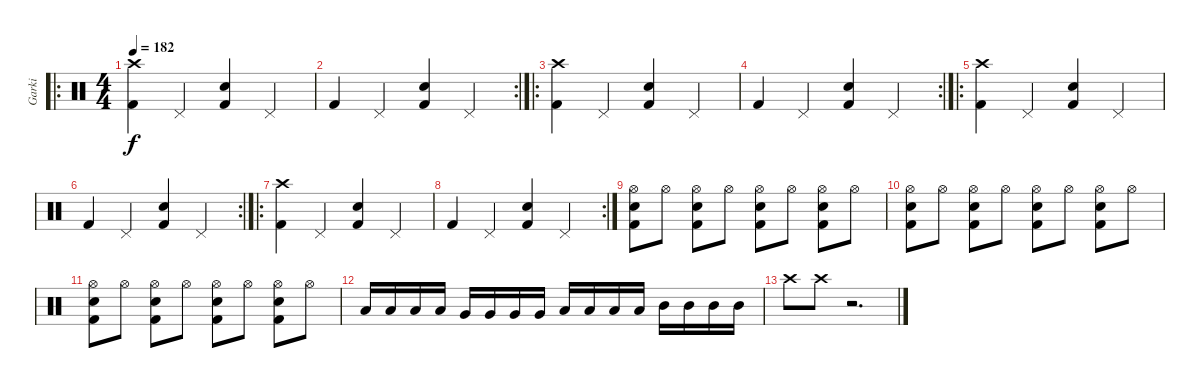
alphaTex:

\track ("Garki" "Garki") {instrument percussion}
\staff {score}
\articulation defaults
\ro
\ts (4 4)
\tempo 182
\clef neutral
\ks c
("Crash high (hit)" "Kick (hit) 2").4{dy f} "Pedal Hi-Hat (hit)".4 ("Snare (hit) 2" "Kick (hit) 2").4 "Pedal Hi-Hat (hit)".4 |
\rc 2 "Kick (hit) 2".4 "Pedal Hi-Hat (hit)".4
("Snare (hit) 2" "Kick (hit) 2").4 "Pedal Hi-Hat (hit)".4 |
\ro
("Crash high (hit)" "Kick (hit) 2").4 "Pedal Hi-Hat (hit)".4 ("Snare (hit) 2" "Kick (hit) 2").4 "Pedal Hi-Hat (hit)".4 |
\rc 2 "Kick (hit) 2".4 "Pedal Hi-Hat (hit)".4
("Snare (hit) 2" "Kick (hit) 2").4 "Pedal Hi-Hat (hit)".4 |
\ro
("Crash high (hit)" "Kick (hit) 2").4 "Pedal Hi-Hat (hit)".4 ("Snare (hit) 2" "Kick (hit) 2").4 "Pedal Hi-Hat (hit)".4 |
\rc 2 "Kick (hit) 2".4 "Pedal Hi-Hat (hit)".4
("Snare (hit) 2" "Kick (hit) 2").4 "Pedal Hi-Hat (hit)".4 |
\ro
("Crash high (hit)" "Kick (hit) 2").4 "Pedal Hi-Hat (hit)".4 ("Snare (hit) 2" "Kick (hit) 2").4 "Pedal Hi-Hat (hit)".4 |
\rc 2 "Kick (hit) 2".4 "Pedal Hi-Hat (hit)".4
("Snare (hit) 2" "Kick (hit) 2").4 "Pedal Hi-Hat (hit)".4 |
("Hi-Hat (open)" "Snare (hit) 2" "Kick (hit) 2").8 "Hi-Hat (open)".8 ("Hi-Hat (open)" "Snare (hit) 2" "Kick (hit) 2").8 "Hi-Hat (open)".8 ("Hi-Hat (open)" "Snare (hit) 2" "Kick (hit) 2").8 "Hi-Hat (open)".8 ("Hi-Hat (open)" "Snare (hit) 2" "Kick (hit) 2").8 "Hi-Hat (open)".8 |
("Hi-Hat (open)" "Snare (hit) 2" "Kick (hit) 2").8 "Hi-Hat (open)".8 ("Hi-Hat (open)" "Snare (hit) 2" "Kick (hit) 2").8 "Hi-Hat (open)".8 ("Hi-Hat (open)" "Snare (hit) 2" "Kick (hit) 2").8 "Hi-Hat (open)".8 ("Hi-Hat (open)" "Snare (hit) 2" "Kick (hit) 2").8 "Hi-Hat (open)".8 |
("Hi-Hat (open)" "Snare (hit) 2" "Kick (hit) 2").8 "Hi-Hat (open)".8 ("Hi-Hat (open)" "Snare (hit) 2" "Kick (hit) 2").8 "Hi-Hat (open)".8 ("Hi-Hat (open)" "Snare (hit) 2" "Kick (hit) 2").8 "Hi-Hat (open)".8 ("Hi-Hat (open)" "Snare (hit) 2" "Kick (hit) 2").8 "Hi-Hat (open)".8 |
"Low Floor Tom (hit)".16 "Low Floor Tom (hit)".16 "Low Floor Tom (hit)".16 "Low Floor Tom (hit)".16 "Very Low Tom (hit)".16 "Very Low Tom (hit)".16 "Very Low Tom (hit)".16 "Very Low Tom (hit)".16 "Low Tom (hit)".16 "Low Tom (hit)".16 "Low Tom (hit)".16 "Low Tom (hit)".16 "Mid Tom (hit)".16 "Mid Tom (hit)".16 "Mid Tom (hit)".16 "Mid Tom (hit)".16 |
"Crash high (hit)".8 "Crash high (hit)".8 r.2{d}
